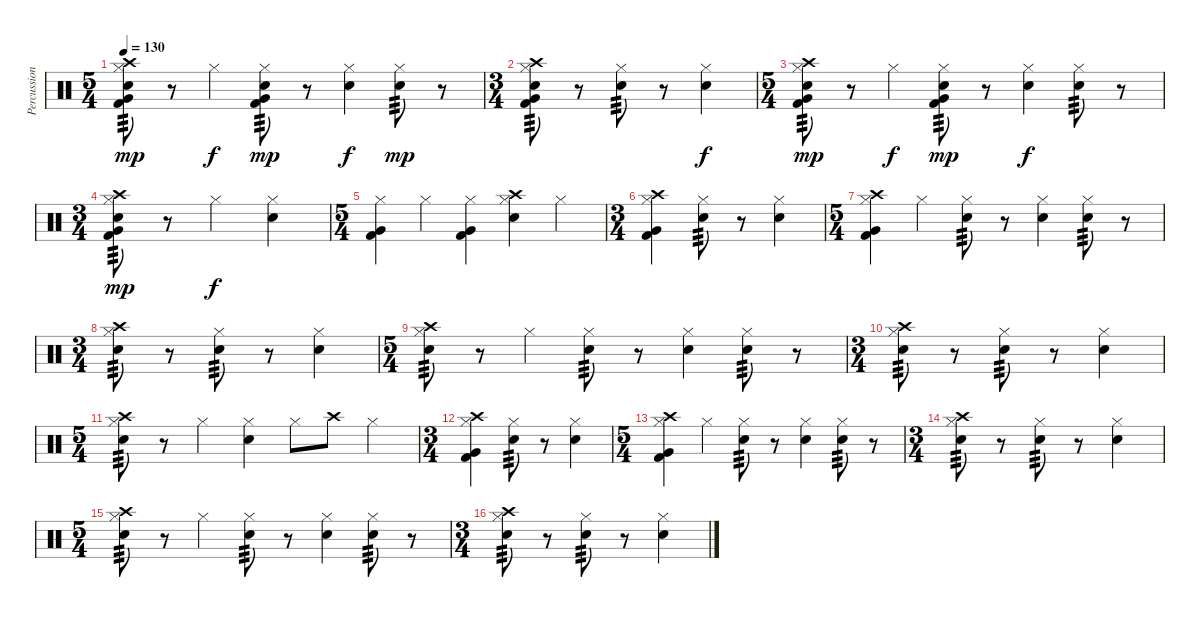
\track ("Percussion" "Percussion") {instrument percussion}
\staff {score}
\articulation defaults
\ts (5 4)
\tempo 130
\clef neutral
\ks c
("Crash high (hit)" "Hi-Hat (closed)" "Electric Snare (hit)" "Very Low Tom (hit)" "Kick (hit) 2").8{tp 3 dy mp} r.8 "Hi-Hat (closed)".4{dy f} ("Hi-Hat (closed)" "Electric Snare (hit)" "Very Low Tom (hit)" "Kick (hit) 2").8{tp 3 dy mp} r.8 ("Hi-Hat (closed)" "Electric Snare (hit)").4{dy f} ("Hi-Hat (closed)" "Electric Snare (hit)").8{tp 3 dy mp} r.8 |
\ts (3 4)
("Crash high (hit)" "Hi-Hat (closed)" "Electric Snare (hit)" "Very Low Tom (hit)" "Kick (hit) 2").8{tp 3} r.8 ("Hi-Hat (closed)" "Electric Snare (hit)").8{tp 3} r.8 ("Hi-Hat (closed)" "Electric Snare (hit)").4{dy f} |
\ts (5 4)
("Crash high (hit)" "Hi-Hat (closed)" "Electric Snare (hit)" "Very Low Tom (hit)" "Kick (hit) 2").8{tp 3 dy mp} r.8 "Hi-Hat (closed)".4{dy f} ("Hi-Hat (closed)" "Electric Snare (hit)" "Very Low Tom (hit)" "Kick (hit) 2").8{tp 3 dy mp} r.8 ("Hi-Hat (closed)" "Electric Snare (hit)").4{dy f} ("Hi-Hat (closed)" "Electric Snare (hit)").8{tp 3} r.8 |
\ts (3 4)
("Crash high (hit)" "Hi-Hat (closed)" "Electric Snare (hit)" "Very Low Tom (hit)" "Kick (hit) 2").8{tp 3 dy mp} r.8 "Hi-Hat (closed)".4{dy f} ("Hi-Hat (closed)" "Electric Snare (hit)").4 |
\ts (5 4)
("Hi-Hat (closed)" "Very Low Tom (hit)" "Kick (hit) 2").4 "Hi-Hat (closed)".4 ("Hi-Hat (closed)" "Very Low Tom (hit)" "Kick (hit) 2").4 ("Crash high (hit)" "Hi-Hat (closed)" "Electric Snare (hit)").4 "Hi-Hat (closed)".4 |
\ts (3 4)
("Crash high (hit)" "Hi-Hat (closed)" "Very Low Tom (hit)" "Kick (hit) 2").4 ("Hi-Hat (closed)" "Electric Snare (hit)").8{tp 3} r.8 ("Hi-Hat (closed)" "Electric Snare (hit)").4 |
\ts (5 4)
("Crash high (hit)" "Hi-Hat (closed)" "Very Low Tom (hit)" "Kick (hit) 2").4 "Hi-Hat (closed)".4 ("Hi-Hat (closed)" "Electric Snare (hit)").8{tp 3} r.8 ("Hi-Hat (closed)" "Electric Snare (hit)").4 ("Hi-Hat (closed)" "Electric Snare (hit)").8{tp 3} r.8 |
\ts (3 4)
("Crash high (hit)" "Hi-Hat (closed)" "Electric Snare (hit)").8{tp 3} r.8 ("Hi-Hat (closed)" "Electric Snare (hit)").8{tp 3} r.8 ("Hi-Hat (closed)" "Electric Snare (hit)").4 |
\ts (5 4)
("Crash high (hit)" "Hi-Hat (closed)" "Electric Snare (hit)").8{tp 3} r.8 "Hi-Hat (closed)".4 ("Hi-Hat (closed)" "Electric Snare (hit)").8{tp 3} r.8 ("Hi-Hat (closed)" "Electric Snare (hit)").4 ("Hi-Hat (closed)" "Electric Snare (hit)").8{tp 3} r.8 |
\ts (3 4)
("Crash high (hit)" "Hi-Hat (closed)" "Electric Snare (hit)").8{tp 3} r.8 ("Hi-Hat (closed)" "Electric Snare (hit)").8{tp 3} r.8 ("Hi-Hat (closed)" "Electric Snare (hit)").4 |
\ts (5 4)
("Crash high (hit)" "Hi-Hat (closed)" "Electric Snare (hit)").8{tp 3} r.8 "Hi-Hat (closed)".4 ("Hi-Hat (closed)" "Electric Snare (hit)").4 "Hi-Hat (closed)".8 "Crash high (hit)".8 "Hi-Hat (closed)".4 |
\ts (3 4)
("Crash high (hit)" "Hi-Hat (closed)" "Very Low Tom (hit)" "Kick (hit) 2").4 ("Hi-Hat (closed)" "Electric Snare (hit)").8{tp 3} r.8 ("Hi-Hat (closed)" "Electric Snare (hit)").4 |
\ts (5 4)
("Crash high (hit)" "Hi-Hat (closed)" "Very Low Tom (hit)" "Kick (hit) 2").4 "Hi-Hat (closed)".4 ("Hi-Hat (closed)" "Electric Snare (hit)").8{tp 3} r.8 ("Hi-Hat (closed)" "Electric Snare (hit)").4 ("Hi-Hat (closed)" "Electric Snare (hit)").8{tp 3} r.8 |
\ts (3 4)
("Crash high (hit)" "Hi-Hat (closed)" "Electric Snare (hit)").8{tp 3} r.8 ("Hi-Hat (closed)" "Electric Snare (hit)").8{tp 3} r.8 ("Hi-Hat (closed)" "Electric Snare (hit)").4 |
\ts (5 4)
("Crash high (hit)" "Hi-Hat (closed)" "Electric Snare (hit)").8{tp 3} r.8 "Hi-Hat (closed)".4 ("Hi-Hat (closed)" "Electric Snare (hit)").8{tp 3} r.8 ("Hi-Hat (closed)" "Electric Snare (hit)").4 ("Hi-Hat (closed)" "Electric Snare (hit)").8{tp 3} r.8 |
\ts (3 4)
("Crash high (hit)" "Hi-Hat (closed)" "Electric Snare (hit)").8{tp 3} r.8 ("Hi-Hat (closed)" "Electric Snare (hit)").8{tp 3} r.8 ("Hi-Hat (closed)" "Electric Snare (hit)").4
